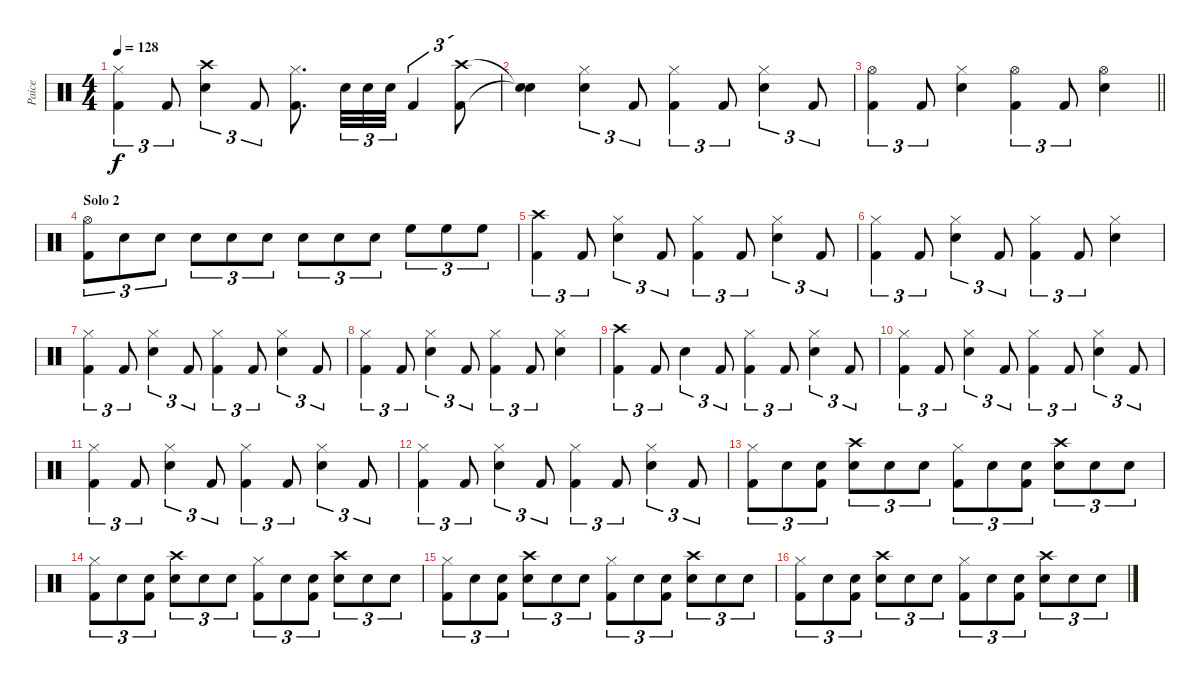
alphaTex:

\track ("Paice" "Paice") {instrument percussion}
\staff {score}
\articulation defaults
\ts (4 4)
\tempo 128
\clef neutral
\ks c
("Hi-Hat (closed)" "Kick (hit) 2").4{tu (3 2) dy f} "Kick (hit) 2".8{tu (3 2)} ("Crash high (hit)" "Snare (hit) 2").4{tu (3 2)} "Kick (hit) 2".8{tu (3 2)} ("Hi-Hat (closed)" "Kick (hit) 2").8{d} "Snare (hit) 2".32{tu (3 2)} "Snare (hit) 2".32{tu (3 2)} "Snare (hit) 2".32{tu (3 2)} "Kick (hit) 2".4{tu (3 2)} ("Crash high (hit)" "Kick (hit) 2").8{tu (3 2)} |
("Snare (hit)"{t} "Snare (hit)"{t}).4 ("Hi-Hat (closed)" "Snare (hit) 2").4{tu (3 2)} "Kick (hit) 2".8{tu (3 2)} ("Hi-Hat (closed)" "Kick (hit) 2").4{tu (3 2)} "Kick (hit) 2".8{tu (3 2)} ("Hi-Hat (closed)" "Snare (hit) 2").4{tu (3 2)} "Kick (hit) 2".8{tu (3 2)} |
\barLineRight lightlight
("Hi-Hat (open)" "Kick (hit) 2").4{tu (3 2)} "Kick (hit) 2".8{tu (3 2)} ("Hi-Hat (closed)" "Snare (hit) 2").4 ("Hi-Hat (open)" "Kick (hit) 2").4{tu (3 2)} "Kick (hit) 2".8{tu (3 2)} ("Hi-Hat (open)" "Snare (hit) 2").4 |
\section ("" "Solo 2")
("Hi-Hat (open)" "Kick (hit) 2").8{tu (3 2)} "Snare (hit) 2".8{tu (3 2)} "Snare (hit) 2".8{tu (3 2)} "Snare (hit) 2".8{tu (3 2)} "Snare (hit) 2".8{tu (3 2)} "Snare (hit) 2".8{tu (3 2)} "Snare (hit) 2".8{tu (3 2)} "Snare (hit) 2".8{tu (3 2)} "Snare (hit) 2".8{tu (3 2)} "High Floor Tom (hit)".8{tu (3 2)} "High Floor Tom (hit)".8{tu (3 2)} "High Floor Tom (hit)".8{tu (3 2)} |
("Crash high (hit)" "Kick (hit) 2").4{tu (3 2)} "Kick (hit) 2".8{tu (3 2)} ("Hi-Hat (closed)" "Snare (hit) 2").4{tu (3 2)} "Kick (hit) 2".8{tu (3 2)} ("Hi-Hat (closed)" "Kick (hit) 2").4{tu (3 2)} "Kick (hit) 2".8{tu (3 2)} ("Hi-Hat (closed)" "Snare (hit) 2").4{tu (3 2)} "Kick (hit) 2".8{tu (3 2)} |
("Hi-Hat (closed)" "Kick (hit) 2").4{tu (3 2)} "Kick (hit) 2".8{tu (3 2)} ("Hi-Hat (closed)" "Snare (hit) 2").4{tu (3 2)} "Kick (hit) 2".8{tu (3 2)} ("Hi-Hat (closed)" "Kick (hit) 2").4{tu (3 2)} "Kick (hit) 2".8{tu (3 2)} ("Hi-Hat (closed)" "Snare (hit) 2").4 |
("Hi-Hat (closed)" "Kick (hit) 2").4{tu (3 2)} "Kick (hit) 2".8{tu (3 2)} ("Hi-Hat (closed)" "Snare (hit) 2").4{tu (3 2)} "Kick (hit) 2".8{tu (3 2)} ("Hi-Hat (closed)" "Kick (hit) 2").4{tu (3 2)} "Kick (hit) 2".8{tu (3 2)} ("Hi-Hat (closed)" "Snare (hit) 2").4{tu (3 2)} "Kick (hit) 2".8{tu (3 2)} |
("Hi-Hat (closed)" "Kick (hit) 2").4{tu (3 2)} "Kick (hit) 2".8{tu (3 2)} ("Hi-Hat (closed)" "Snare (hit) 2").4{tu (3 2)} "Kick (hit) 2".8{tu (3 2)} ("Hi-Hat (closed)" "Kick (hit) 2").4{tu (3 2)} "Kick (hit) 2".8{tu (3 2)} ("Hi-Hat (closed)" "Snare (hit) 2").4 |
("Crash high (hit)" "Kick (hit) 2").4{tu (3 2)} "Kick (hit) 2".8{tu (3 2)} "Snare (hit) 2".4{tu (3 2)} "Kick (hit) 2".8{tu (3 2)} ("Hi-Hat (closed)" "Kick (hit) 2").4{tu (3 2)} "Kick (hit) 2".8{tu (3 2)} ("Hi-Hat (closed)" "Snare (hit) 2").4{tu (3 2)} "Kick (hit) 2".8{tu (3 2)} |
("Hi-Hat (closed)" "Kick (hit) 2").4{tu (3 2)} "Kick (hit) 2".8{tu (3 2)} ("Hi-Hat (closed)" "Snare (hit) 2").4{tu (3 2)} "Kick (hit) 2".8{tu (3 2)} ("Hi-Hat (closed)" "Kick (hit) 2").4{tu (3 2)} "Kick (hit) 2".8{tu (3 2)} ("Hi-Hat (closed)" "Snare (hit) 2").4{tu (3 2)} "Kick (hit) 2".8{tu (3 2)} |
("Hi-Hat (closed)" "Kick (hit) 2").4{tu (3 2)} "Kick (hit) 2".8{tu (3 2)} ("Hi-Hat (closed)" "Snare (hit) 2").4{tu (3 2)} "Kick (hit) 2".8{tu (3 2)} ("Hi-Hat (closed)" "Kick (hit) 2").4{tu (3 2)} "Kick (hit) 2".8{tu (3 2)} ("Hi-Hat (closed)" "Snare (hit) 2").4{tu (3 2)} "Kick (hit) 2".8{tu (3 2)} |
("Hi-Hat (closed)" "Kick (hit) 2").4{tu (3 2)} "Kick (hit) 2".8{tu (3 2)} ("Hi-Hat (closed)" "Snare (hit) 2").4{tu (3 2)} "Kick (hit) 2".8{tu (3 2)} ("Hi-Hat (closed)" "Kick (hit) 2").4{tu (3 2)} "Kick (hit) 2".8{tu (3 2)} ("Hi-Hat (closed)" "Snare (hit) 2").4{tu (3 2)} "Kick (hit) 2".8{tu (3 2)} |
("Hi-Hat (closed)" "Kick (hit) 2").8{tu (3 2)} "Snare (hit) 2".8{tu (3 2)} ("Snare (hit) 2" "Kick (hit) 2").8{tu (3 2)} ("Crash high (hit)" "Snare (hit) 2").8{tu (3 2)} "Snare (hit) 2".8{tu (3 2)} "Snare (hit) 2".8{tu (3 2)} ("Hi-Hat (closed)" "Kick (hit) 2").8{tu (3 2)} "Snare (hit) 2".8{tu (3 2)} ("Snare (hit) 2" "Kick (hit) 2").8{tu (3 2)} ("Crash high (hit)" "Snare (hit) 2").8{tu (3 2)} "Snare (hit) 2".8{tu (3 2)} "Snare (hit) 2".8{tu (3 2)} |
("Hi-Hat (closed)" "Kick (hit) 2").8{tu (3 2)} "Snare (hit) 2".8{tu (3 2)} ("Snare (hit) 2" "Kick (hit) 2").8{tu (3 2)} ("Crash high (hit)" "Snare (hit) 2").8{tu (3 2)} "Snare (hit) 2".8{tu (3 2)} "Snare (hit) 2".8{tu (3 2)} ("Hi-Hat (closed)" "Kick (hit) 2").8{tu (3 2)} "Snare (hit) 2".8{tu (3 2)} ("Snare (hit) 2" "Kick (hit) 2").8{tu (3 2)} ("Crash high (hit)" "Snare (hit) 2").8{tu (3 2)} "Snare (hit) 2".8{tu (3 2)} "Snare (hit) 2".8{tu (3 2)} |
("Hi-Hat (closed)" "Kick (hit) 2").8{tu (3 2)} "Snare (hit) 2".8{tu (3 2)} ("Snare (hit) 2" "Kick (hit) 2").8{tu (3 2)} ("Crash high (hit)" "Snare (hit) 2").8{tu (3 2)} "Snare (hit) 2".8{tu (3 2)} "Snare (hit) 2".8{tu (3 2)} ("Hi-Hat (closed)" "Kick (hit) 2").8{tu (3 2)} "Snare (hit) 2".8{tu (3 2)} ("Snare (hit) 2" "Kick (hit) 2").8{tu (3 2)} ("Crash high (hit)" "Snare (hit) 2").8{tu (3 2)} "Snare (hit) 2".8{tu (3 2)} "Snare (hit) 2".8{tu (3 2)} |
("Hi-Hat (closed)" "Kick (hit) 2").8{tu (3 2)} "Snare (hit) 2".8{tu (3 2)} ("Snare (hit) 2" "Kick (hit) 2").8{tu (3 2)} ("Crash high (hit)" "Snare (hit) 2").8{tu (3 2)} "Snare (hit) 2".8{tu (3 2)} "Snare (hit) 2".8{tu (3 2)} ("Hi-Hat (closed)" "Kick (hit) 2").8{tu (3 2)} "Snare (hit) 2".8{tu (3 2)} ("Snare (hit) 2" "Kick (hit) 2").8{tu (3 2)} ("Crash high (hit)" "Snare (hit) 2").8{tu (3 2)} "Snare (hit) 2".8{tu (3 2)} "Snare (hit) 2".8{tu (3 2)}
